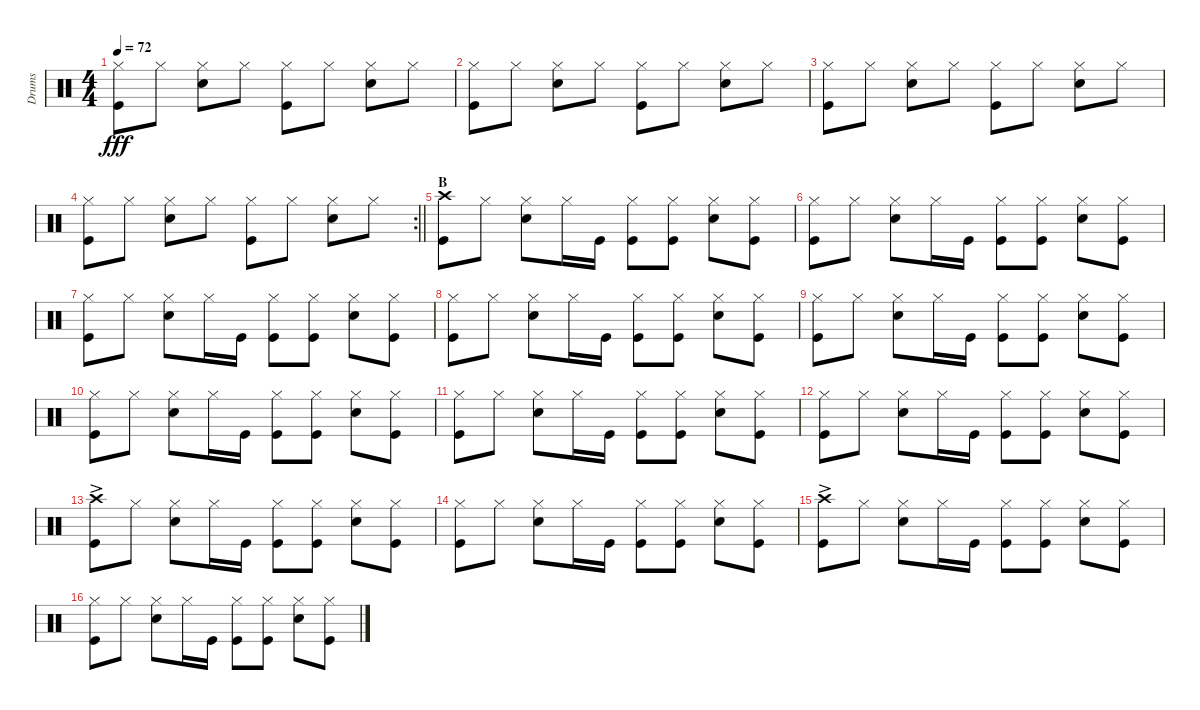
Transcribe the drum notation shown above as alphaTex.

\track ("Drums" "Drums") {instrument percussion}
\staff {score}
\articulation defaults
\ts (4 4)
\tempo 72
\clef neutral
\ks c
("Hi-Hat (closed)" "Kick (hit)").8{dy fff} "Hi-Hat (closed)".8 ("Hi-Hat (closed)" "Snare (hit) 2").8 "Hi-Hat (closed)".8 ("Hi-Hat (closed)" "Kick (hit)").8 "Hi-Hat (closed)".8 ("Hi-Hat (closed)" "Snare (hit) 2").8 "Hi-Hat (closed)".8 |
("Hi-Hat (closed)" "Kick (hit)").8 "Hi-Hat (closed)".8 ("Hi-Hat (closed)" "Snare (hit) 2").8 "Hi-Hat (closed)".8 ("Hi-Hat (closed)" "Kick (hit)").8 "Hi-Hat (closed)".8 ("Hi-Hat (closed)" "Snare (hit) 2").8 "Hi-Hat (closed)".8 |
("Hi-Hat (closed)" "Kick (hit)").8 "Hi-Hat (closed)".8 ("Hi-Hat (closed)" "Snare (hit) 2").8 "Hi-Hat (closed)".8 ("Hi-Hat (closed)" "Kick (hit)").8 "Hi-Hat (closed)".8 ("Hi-Hat (closed)" "Snare (hit) 2").8 "Hi-Hat (closed)".8 |
\rc 2
\barLineRight lightlight
("Hi-Hat (closed)" "Kick (hit)").8 "Hi-Hat (closed)".8 ("Hi-Hat (closed)" "Snare (hit) 2").8 "Hi-Hat (closed)".8 ("Hi-Hat (closed)" "Kick (hit)").8 "Hi-Hat (closed)".8 ("Hi-Hat (closed)" "Snare (hit) 2").8 "Hi-Hat (closed)".8 |
\section ("" "B")
("Crash high (hit)" "Kick (hit)").8 "Hi-Hat (closed)".8 ("Hi-Hat (closed)" "Snare (hit) 2").8 "Hi-Hat (closed)".16 "Kick (hit)".16 ("Hi-Hat (closed)" "Kick (hit)").8 ("Hi-Hat (closed)" "Kick (hit)").8 ("Hi-Hat (closed)" "Snare (hit) 2").8 ("Hi-Hat (closed)" "Kick (hit)").8 |
("Hi-Hat (closed)" "Kick (hit)").8 "Hi-Hat (closed)".8 ("Hi-Hat (closed)" "Snare (hit) 2").8 "Hi-Hat (closed)".16 "Kick (hit)".16 ("Hi-Hat (closed)" "Kick (hit)").8 ("Hi-Hat (closed)" "Kick (hit)").8 ("Hi-Hat (closed)" "Snare (hit) 2").8 ("Hi-Hat (closed)" "Kick (hit)").8 |
("Hi-Hat (closed)" "Kick (hit)").8 "Hi-Hat (closed)".8 ("Hi-Hat (closed)" "Snare (hit) 2").8 "Hi-Hat (closed)".16 "Kick (hit)".16 ("Hi-Hat (closed)" "Kick (hit)").8 ("Hi-Hat (closed)" "Kick (hit)").8 ("Hi-Hat (closed)" "Snare (hit) 2").8 ("Hi-Hat (closed)" "Kick (hit)").8 |
("Hi-Hat (closed)" "Kick (hit)").8 "Hi-Hat (closed)".8 ("Hi-Hat (closed)" "Snare (hit) 2").8 "Hi-Hat (closed)".16 "Kick (hit)".16 ("Hi-Hat (closed)" "Kick (hit)").8 ("Hi-Hat (closed)" "Kick (hit)").8 ("Hi-Hat (closed)" "Snare (hit) 2").8 ("Hi-Hat (closed)" "Kick (hit)").8 |
("Hi-Hat (closed)" "Kick (hit)").8 "Hi-Hat (closed)".8 ("Hi-Hat (closed)" "Snare (hit) 2").8 "Hi-Hat (closed)".16 "Kick (hit)".16 ("Hi-Hat (closed)" "Kick (hit)").8 ("Hi-Hat (closed)" "Kick (hit)").8 ("Hi-Hat (closed)" "Snare (hit) 2").8 ("Hi-Hat (closed)" "Kick (hit)").8 |
("Hi-Hat (closed)" "Kick (hit)").8 "Hi-Hat (closed)".8 ("Hi-Hat (closed)" "Snare (hit) 2").8 "Hi-Hat (closed)".16 "Kick (hit)".16 ("Hi-Hat (closed)" "Kick (hit)").8 ("Hi-Hat (closed)" "Kick (hit)").8 ("Hi-Hat (closed)" "Snare (hit) 2").8 ("Hi-Hat (closed)" "Kick (hit)").8 |
("Hi-Hat (closed)" "Kick (hit)").8 "Hi-Hat (closed)".8 ("Hi-Hat (closed)" "Snare (hit) 2").8 "Hi-Hat (closed)".16 "Kick (hit)".16 ("Hi-Hat (closed)" "Kick (hit)").8 ("Hi-Hat (closed)" "Kick (hit)").8 ("Hi-Hat (closed)" "Snare (hit) 2").8 ("Hi-Hat (closed)" "Kick (hit)").8 |
("Hi-Hat (closed)" "Kick (hit)").8 "Hi-Hat (closed)".8 ("Hi-Hat (closed)" "Snare (hit) 2").8 "Hi-Hat (closed)".16 "Kick (hit)".16 ("Hi-Hat (closed)" "Kick (hit)").8 ("Hi-Hat (closed)" "Kick (hit)").8 ("Hi-Hat (closed)" "Snare (hit) 2").8 ("Hi-Hat (closed)" "Kick (hit)").8 |
("Crash high (hit)"{ac} "Kick (hit)").8 "Hi-Hat (closed)".8 ("Hi-Hat (closed)" "Snare (hit) 2").8 "Hi-Hat (closed)".16 "Kick (hit)".16 ("Hi-Hat (closed)" "Kick (hit)").8 ("Hi-Hat (closed)" "Kick (hit)").8 ("Hi-Hat (closed)" "Snare (hit) 2").8 ("Hi-Hat (closed)" "Kick (hit)").8 |
("Hi-Hat (closed)" "Kick (hit)").8 "Hi-Hat (closed)".8 ("Hi-Hat (closed)" "Snare (hit) 2").8 "Hi-Hat (closed)".16 "Kick (hit)".16 ("Hi-Hat (closed)" "Kick (hit)").8 ("Hi-Hat (closed)" "Kick (hit)").8 ("Hi-Hat (closed)" "Snare (hit) 2").8 ("Hi-Hat (closed)" "Kick (hit)").8 |
("Crash high (hit)"{ac} "Kick (hit)").8 "Hi-Hat (closed)".8 ("Hi-Hat (closed)" "Snare (hit) 2").8 "Hi-Hat (closed)".16 "Kick (hit)".16 ("Hi-Hat (closed)" "Kick (hit)").8 ("Hi-Hat (closed)" "Kick (hit)").8 ("Hi-Hat (closed)" "Snare (hit) 2").8 ("Hi-Hat (closed)" "Kick (hit)").8 |
("Hi-Hat (closed)" "Kick (hit)").8 "Hi-Hat (closed)".8 ("Hi-Hat (closed)" "Snare (hit) 2").8 "Hi-Hat (closed)".16 "Kick (hit)".16 ("Hi-Hat (closed)" "Kick (hit)").8 ("Hi-Hat (closed)" "Kick (hit)").8 ("Hi-Hat (closed)" "Snare (hit) 2").8 ("Hi-Hat (closed)" "Kick (hit)").8
